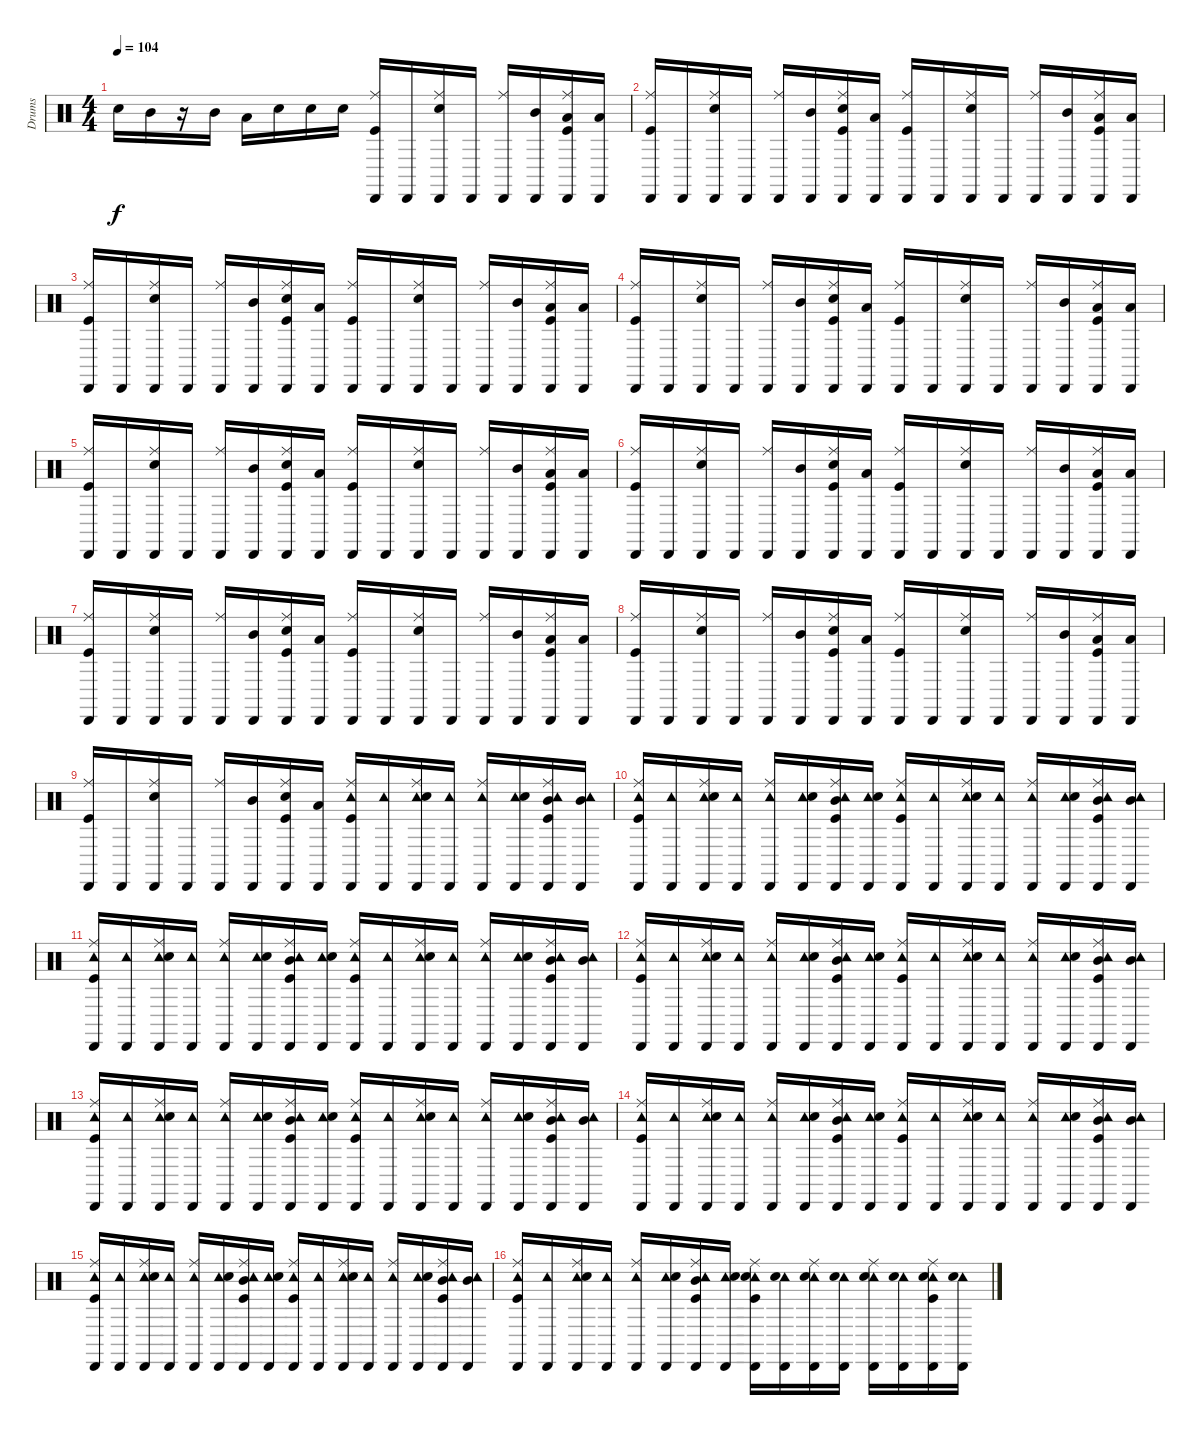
\track ("Drums" "Drums") {instrument percussion}
\staff {score}
\articulation defaults
\ts (4 4)
\tempo 104
\clef neutral
\ks c "Electric Snare (hit)".16{dy f} "Mid Tom (hit)".16
r.16 "Mid Tom (hit)".16 "Low Tom (hit)".16 "Electric Snare (hit)".16 "Electric Snare (hit)".16 "Electric Snare (hit)".16 ("Cabasa (hit)" "Ride (middle)" "Kick (hit)").16 "Cabasa (hit)".16 ("Cabasa (hit)" "Ride (middle)" "Electric Snare (hit)").16 "Cabasa (hit)".16 ("Cabasa (hit)" "Ride (middle)").16 ("Cabasa (hit)" "Mid Tom (hit)").16 ("Cabasa (hit)" "Ride (middle)" "Low Tom (hit)" "Kick (hit)").16 ("Cabasa (hit)" "Low Tom (hit)").16 |
("Cabasa (hit)" "Ride (middle)" "Kick (hit)").16 "Cabasa (hit)".16 ("Cabasa (hit)" "Ride (middle)" "Electric Snare (hit)").16 "Cabasa (hit)".16 ("Cabasa (hit)" "Ride (middle)").16 ("Cabasa (hit)" "Mid Tom (hit)").16 ("Cabasa (hit)" "Ride (middle)" "Electric Snare (hit)" "Kick (hit)").16 ("Cabasa (hit)" "Low Tom (hit)").16 ("Cabasa (hit)" "Ride (middle)" "Kick (hit)").16 "Cabasa (hit)".16 ("Cabasa (hit)" "Ride (middle)" "Electric Snare (hit)").16 "Cabasa (hit)".16 ("Cabasa (hit)" "Ride (middle)").16 ("Cabasa (hit)" "Mid Tom (hit)").16 ("Cabasa (hit)" "Ride (middle)" "Low Tom (hit)" "Kick (hit)").16 ("Cabasa (hit)" "Low Tom (hit)").16 |
("Cabasa (hit)" "Ride (middle)" "Kick (hit)").16 "Cabasa (hit)".16 ("Cabasa (hit)" "Ride (middle)" "Electric Snare (hit)").16 "Cabasa (hit)".16 ("Cabasa (hit)" "Ride (middle)").16 ("Cabasa (hit)" "Mid Tom (hit)").16 ("Cabasa (hit)" "Ride (middle)" "Electric Snare (hit)" "Kick (hit)").16 ("Cabasa (hit)" "Low Tom (hit)").16 ("Cabasa (hit)" "Ride (middle)" "Kick (hit)").16 "Cabasa (hit)".16 ("Cabasa (hit)" "Ride (middle)" "Electric Snare (hit)").16 "Cabasa (hit)".16 ("Cabasa (hit)" "Ride (middle)").16 ("Cabasa (hit)" "Mid Tom (hit)").16 ("Cabasa (hit)" "Ride (middle)" "Low Tom (hit)" "Kick (hit)").16 ("Cabasa (hit)" "Low Tom (hit)").16 |
("Cabasa (hit)" "Ride (middle)" "Kick (hit)").16 "Cabasa (hit)".16 ("Cabasa (hit)" "Ride (middle)" "Electric Snare (hit)").16 "Cabasa (hit)".16 ("Cabasa (hit)" "Ride (middle)").16 ("Cabasa (hit)" "Mid Tom (hit)").16 ("Cabasa (hit)" "Ride (middle)" "Electric Snare (hit)" "Kick (hit)").16 ("Cabasa (hit)" "Low Tom (hit)").16 ("Cabasa (hit)" "Ride (middle)" "Kick (hit)").16 "Cabasa (hit)".16 ("Cabasa (hit)" "Ride (middle)" "Electric Snare (hit)").16 "Cabasa (hit)".16 ("Cabasa (hit)" "Ride (middle)").16 ("Cabasa (hit)" "Mid Tom (hit)").16 ("Cabasa (hit)" "Ride (middle)" "Low Tom (hit)" "Kick (hit)").16 ("Cabasa (hit)" "Low Tom (hit)").16 |
("Cabasa (hit)" "Ride (middle)" "Kick (hit)").16 "Cabasa (hit)".16 ("Cabasa (hit)" "Ride (middle)" "Electric Snare (hit)").16 "Cabasa (hit)".16 ("Cabasa (hit)" "Ride (middle)").16 ("Cabasa (hit)" "Mid Tom (hit)").16 ("Cabasa (hit)" "Ride (middle)" "Electric Snare (hit)" "Kick (hit)").16 ("Cabasa (hit)" "Low Tom (hit)").16 ("Cabasa (hit)" "Ride (middle)" "Kick (hit)").16 "Cabasa (hit)".16 ("Cabasa (hit)" "Ride (middle)" "Electric Snare (hit)").16 "Cabasa (hit)".16 ("Cabasa (hit)" "Ride (middle)").16 ("Cabasa (hit)" "Mid Tom (hit)").16 ("Cabasa (hit)" "Ride (middle)" "Low Tom (hit)" "Kick (hit)").16 ("Cabasa (hit)" "Low Tom (hit)").16 |
("Cabasa (hit)" "Ride (middle)" "Kick (hit)").16 "Cabasa (hit)".16 ("Cabasa (hit)" "Ride (middle)" "Electric Snare (hit)").16 "Cabasa (hit)".16 ("Cabasa (hit)" "Ride (middle)").16 ("Cabasa (hit)" "Mid Tom (hit)").16 ("Cabasa (hit)" "Ride (middle)" "Electric Snare (hit)" "Kick (hit)").16 ("Cabasa (hit)" "Low Tom (hit)").16 ("Cabasa (hit)" "Ride (middle)" "Kick (hit)").16 "Cabasa (hit)".16 ("Cabasa (hit)" "Ride (middle)" "Electric Snare (hit)").16 "Cabasa (hit)".16 ("Cabasa (hit)" "Ride (middle)").16 ("Cabasa (hit)" "Mid Tom (hit)").16 ("Cabasa (hit)" "Ride (middle)" "Low Tom (hit)" "Kick (hit)").16 ("Cabasa (hit)" "Low Tom (hit)").16 |
("Cabasa (hit)" "Ride (middle)" "Kick (hit)").16 "Cabasa (hit)".16 ("Cabasa (hit)" "Ride (middle)" "Electric Snare (hit)").16 "Cabasa (hit)".16 ("Cabasa (hit)" "Ride (middle)").16 ("Cabasa (hit)" "Mid Tom (hit)").16 ("Cabasa (hit)" "Ride (middle)" "Electric Snare (hit)" "Kick (hit)").16 ("Cabasa (hit)" "Low Tom (hit)").16 ("Cabasa (hit)" "Ride (middle)" "Kick (hit)").16 "Cabasa (hit)".16 ("Cabasa (hit)" "Ride (middle)" "Electric Snare (hit)").16 "Cabasa (hit)".16 ("Cabasa (hit)" "Ride (middle)").16 ("Cabasa (hit)" "Mid Tom (hit)").16 ("Cabasa (hit)" "Ride (middle)" "Low Tom (hit)" "Kick (hit)").16 ("Cabasa (hit)" "Low Tom (hit)").16 |
("Cabasa (hit)" "Ride (middle)" "Kick (hit)").16 "Cabasa (hit)".16 ("Cabasa (hit)" "Ride (middle)" "Electric Snare (hit)").16 "Cabasa (hit)".16 ("Cabasa (hit)" "Ride (middle)").16 ("Cabasa (hit)" "Mid Tom (hit)").16 ("Cabasa (hit)" "Ride (middle)" "Electric Snare (hit)" "Kick (hit)").16 ("Cabasa (hit)" "Low Tom (hit)").16 ("Cabasa (hit)" "Ride (middle)" "Kick (hit)").16 "Cabasa (hit)".16 ("Cabasa (hit)" "Ride (middle)" "Electric Snare (hit)").16 "Cabasa (hit)".16 ("Cabasa (hit)" "Ride (middle)").16 ("Cabasa (hit)" "Mid Tom (hit)").16 ("Cabasa (hit)" "Ride (middle)" "Low Tom (hit)" "Kick (hit)").16 ("Cabasa (hit)" "Low Tom (hit)").16 |
("Cabasa (hit)" "Ride (middle)" "Kick (hit)").16 "Cabasa (hit)".16 ("Cabasa (hit)" "Ride (middle)" "Electric Snare (hit)").16 "Cabasa (hit)".16 ("Cabasa (hit)" "Ride (middle)").16 ("Cabasa (hit)" "Mid Tom (hit)").16 ("Cabasa (hit)" "Ride (middle)" "Electric Snare (hit)" "Kick (hit)").16 ("Cabasa (hit)" "Low Tom (hit)").16 ("Cabasa (hit)" "Ride (middle)" "Tambourine (hit)" "Kick (hit)").16 ("Cabasa (hit)" "Tambourine (hit)").16 ("Cabasa (hit)" "Ride (middle)" "Tambourine (hit)" "Electric Snare (hit)").16 ("Cabasa (hit)" "Tambourine (hit)").16 ("Cabasa (hit)" "Ride (middle)" "Tambourine (hit)").16 ("Cabasa (hit)" "Tambourine (hit)" "Electric Snare (hit)").16 ("Cabasa (hit)" "Ride (middle)" "Tambourine (hit)" "Mid Tom (hit)" "Kick (hit)").16 ("Cabasa (hit)" "Tambourine (hit)" "Mid Tom (hit)").16 |
("Cabasa (hit)" "Ride (middle)" "Tambourine (hit)" "Kick (hit)").16 ("Cabasa (hit)" "Tambourine (hit)").16 ("Cabasa (hit)" "Ride (middle)" "Tambourine (hit)" "Electric Snare (hit)").16 ("Cabasa (hit)" "Tambourine (hit)").16 ("Cabasa (hit)" "Ride (middle)" "Tambourine (hit)").16 ("Cabasa (hit)" "Tambourine (hit)" "Electric Snare (hit)").16 ("Cabasa (hit)" "Ride (middle)" "Tambourine (hit)" "Mid Tom (hit)" "Kick (hit)").16 ("Cabasa (hit)" "Tambourine (hit)" "Electric Snare (hit)").16 ("Cabasa (hit)" "Ride (middle)" "Tambourine (hit)" "Kick (hit)").16 ("Cabasa (hit)" "Tambourine (hit)").16 ("Cabasa (hit)" "Ride (middle)" "Tambourine (hit)" "Electric Snare (hit)").16 ("Cabasa (hit)" "Tambourine (hit)").16 ("Cabasa (hit)" "Ride (middle)" "Tambourine (hit)").16 ("Cabasa (hit)" "Tambourine (hit)" "Electric Snare (hit)").16 ("Cabasa (hit)" "Ride (middle)" "Tambourine (hit)" "Mid Tom (hit)" "Kick (hit)").16 ("Cabasa (hit)" "Tambourine (hit)" "Mid Tom (hit)").16 |
("Cabasa (hit)" "Ride (middle)" "Tambourine (hit)" "Kick (hit)").16 ("Cabasa (hit)" "Tambourine (hit)").16 ("Cabasa (hit)" "Ride (middle)" "Tambourine (hit)" "Electric Snare (hit)").16 ("Cabasa (hit)" "Tambourine (hit)").16 ("Cabasa (hit)" "Ride (middle)" "Tambourine (hit)").16 ("Cabasa (hit)" "Tambourine (hit)" "Electric Snare (hit)").16 ("Cabasa (hit)" "Ride (middle)" "Tambourine (hit)" "Mid Tom (hit)" "Kick (hit)").16 ("Cabasa (hit)" "Tambourine (hit)" "Electric Snare (hit)").16 ("Cabasa (hit)" "Ride (middle)" "Tambourine (hit)" "Kick (hit)").16 ("Cabasa (hit)" "Tambourine (hit)").16 ("Cabasa (hit)" "Ride (middle)" "Tambourine (hit)" "Electric Snare (hit)").16 ("Cabasa (hit)" "Tambourine (hit)").16 ("Cabasa (hit)" "Ride (middle)" "Tambourine (hit)").16 ("Cabasa (hit)" "Tambourine (hit)" "Electric Snare (hit)").16 ("Cabasa (hit)" "Ride (middle)" "Tambourine (hit)" "Mid Tom (hit)" "Kick (hit)").16 ("Cabasa (hit)" "Tambourine (hit)" "Mid Tom (hit)").16 |
("Cabasa (hit)" "Ride (middle)" "Tambourine (hit)" "Kick (hit)").16 ("Cabasa (hit)" "Tambourine (hit)").16 ("Cabasa (hit)" "Ride (middle)" "Tambourine (hit)" "Electric Snare (hit)").16 ("Cabasa (hit)" "Tambourine (hit)").16 ("Cabasa (hit)" "Ride (middle)" "Tambourine (hit)").16 ("Cabasa (hit)" "Tambourine (hit)" "Electric Snare (hit)").16 ("Cabasa (hit)" "Ride (middle)" "Tambourine (hit)" "Mid Tom (hit)" "Kick (hit)").16 ("Cabasa (hit)" "Tambourine (hit)" "Electric Snare (hit)").16 ("Cabasa (hit)" "Ride (middle)" "Tambourine (hit)" "Kick (hit)").16 ("Cabasa (hit)" "Tambourine (hit)").16 ("Cabasa (hit)" "Ride (middle)" "Tambourine (hit)" "Electric Snare (hit)").16 ("Cabasa (hit)" "Tambourine (hit)").16 ("Cabasa (hit)" "Ride (middle)" "Tambourine (hit)").16 ("Cabasa (hit)" "Tambourine (hit)" "Electric Snare (hit)").16 ("Cabasa (hit)" "Ride (middle)" "Tambourine (hit)" "Mid Tom (hit)" "Kick (hit)").16 ("Cabasa (hit)" "Tambourine (hit)" "Mid Tom (hit)").16 |
("Cabasa (hit)" "Ride (middle)" "Tambourine (hit)" "Kick (hit)").16 ("Cabasa (hit)" "Tambourine (hit)").16 ("Cabasa (hit)" "Ride (middle)" "Tambourine (hit)" "Electric Snare (hit)").16 ("Cabasa (hit)" "Tambourine (hit)").16 ("Cabasa (hit)" "Ride (middle)" "Tambourine (hit)").16 ("Cabasa (hit)" "Tambourine (hit)" "Electric Snare (hit)").16 ("Cabasa (hit)" "Ride (middle)" "Tambourine (hit)" "Mid Tom (hit)" "Kick (hit)").16 ("Cabasa (hit)" "Tambourine (hit)" "Electric Snare (hit)").16 ("Cabasa (hit)" "Ride (middle)" "Tambourine (hit)" "Kick (hit)").16 ("Cabasa (hit)" "Tambourine (hit)").16 ("Cabasa (hit)" "Ride (middle)" "Tambourine (hit)" "Electric Snare (hit)").16 ("Cabasa (hit)" "Tambourine (hit)").16 ("Cabasa (hit)" "Ride (middle)" "Tambourine (hit)").16 ("Cabasa (hit)" "Tambourine (hit)" "Electric Snare (hit)").16 ("Cabasa (hit)" "Ride (middle)" "Tambourine (hit)" "Mid Tom (hit)" "Kick (hit)").16 ("Cabasa (hit)" "Tambourine (hit)" "Mid Tom (hit)").16 |
("Cabasa (hit)" "Ride (middle)" "Tambourine (hit)" "Kick (hit)").16 ("Cabasa (hit)" "Tambourine (hit)").16 ("Cabasa (hit)" "Ride (middle)" "Tambourine (hit)" "Electric Snare (hit)").16 ("Cabasa (hit)" "Tambourine (hit)").16 ("Cabasa (hit)" "Ride (middle)" "Tambourine (hit)").16 ("Cabasa (hit)" "Tambourine (hit)" "Electric Snare (hit)").16 ("Cabasa (hit)" "Ride (middle)" "Tambourine (hit)" "Mid Tom (hit)" "Kick (hit)").16 ("Cabasa (hit)" "Tambourine (hit)" "Electric Snare (hit)").16 ("Cabasa (hit)" "Ride (middle)" "Tambourine (hit)" "Kick (hit)").16 ("Cabasa (hit)" "Tambourine (hit)").16 ("Cabasa (hit)" "Ride (middle)" "Tambourine (hit)" "Electric Snare (hit)").16 ("Cabasa (hit)" "Tambourine (hit)").16 ("Cabasa (hit)" "Ride (middle)" "Tambourine (hit)").16 ("Cabasa (hit)" "Tambourine (hit)" "Electric Snare (hit)").16 ("Cabasa (hit)" "Ride (middle)" "Tambourine (hit)" "Mid Tom (hit)" "Kick (hit)").16 ("Cabasa (hit)" "Tambourine (hit)" "Mid Tom (hit)").16 |
("Cabasa (hit)" "Ride (middle)" "Tambourine (hit)" "Kick (hit)").16 ("Cabasa (hit)" "Tambourine (hit)").16 ("Cabasa (hit)" "Ride (middle)" "Tambourine (hit)" "Electric Snare (hit)").16 ("Cabasa (hit)" "Tambourine (hit)").16 ("Cabasa (hit)" "Ride (middle)" "Tambourine (hit)").16 ("Cabasa (hit)" "Tambourine (hit)" "Electric Snare (hit)").16 ("Cabasa (hit)" "Ride (middle)" "Tambourine (hit)" "Mid Tom (hit)" "Kick (hit)").16 ("Cabasa (hit)" "Tambourine (hit)" "Electric Snare (hit)").16 ("Cabasa (hit)" "Ride (middle)" "Tambourine (hit)" "Kick (hit)").16 ("Cabasa (hit)" "Tambourine (hit)").16 ("Cabasa (hit)" "Ride (middle)" "Tambourine (hit)" "Electric Snare (hit)").16 ("Cabasa (hit)" "Tambourine (hit)").16 ("Cabasa (hit)" "Ride (middle)" "Tambourine (hit)").16 ("Cabasa (hit)" "Tambourine (hit)" "Electric Snare (hit)").16 ("Cabasa (hit)" "Ride (middle)" "Tambourine (hit)" "Mid Tom (hit)" "Kick (hit)").16 ("Cabasa (hit)" "Tambourine (hit)" "Mid Tom (hit)").16 |
("Cabasa (hit)" "Ride (middle)" "Tambourine (hit)" "Kick (hit)").16 ("Cabasa (hit)" "Tambourine (hit)").16 ("Cabasa (hit)" "Ride (middle)" "Tambourine (hit)" "Electric Snare (hit)").16 ("Cabasa (hit)" "Tambourine (hit)").16 ("Cabasa (hit)" "Ride (middle)" "Tambourine (hit)").16 ("Cabasa (hit)" "Tambourine (hit)" "Electric Snare (hit)").16 ("Cabasa (hit)" "Ride (middle)" "Tambourine (hit)" "Mid Tom (hit)" "Kick (hit)").16 ("Cabasa (hit)" "Tambourine (hit)" "Electric Snare (hit)").16 ("Cabasa (hit)" "Ride (middle)" "Tambourine (hit)" "Electric Snare (hit)" "Kick (hit)").16 ("Cabasa (hit)" "Tambourine (hit)" "Electric Snare (hit)").16 ("Cabasa (hit)" "Ride (middle)" "Tambourine (hit)" "Electric Snare (hit)").16 ("Cabasa (hit)" "Tambourine (hit)" "Electric Snare (hit)").16 ("Cabasa (hit)" "Ride (middle)" "Tambourine (hit)" "Electric Snare (hit)").16 ("Cabasa (hit)" "Tambourine (hit)" "Electric Snare (hit)").16 ("Cabasa (hit)" "Ride (middle)" "Tambourine (hit)" "Electric Snare (hit)" "Kick (hit)").16 ("Cabasa (hit)" "Tambourine (hit)" "Electric Snare (hit)").16
